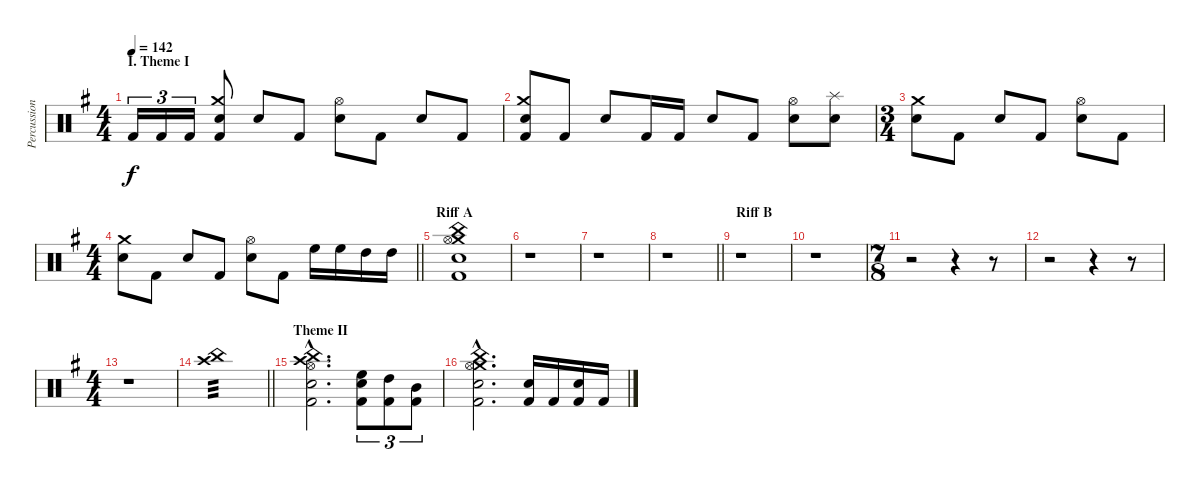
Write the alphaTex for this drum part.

\track ("Percussion" "Percussion") {instrument percussion}
\staff {score}
\articulation defaults
\ts (4 4)
\section ("" "I. Theme I")
\tempo 142
\clef neutral
\ks eminor "Kick (hit) 2".16{tu (3 2) dy f} "Kick (hit) 2".16{tu (3 2)} "Kick (hit) 2".16{tu (3 2)}
("Crash medium (hit)" "Snare (hit) 2" "Kick (hit) 2").8 "Snare (hit) 2".8 "Kick (hit) 2".8 ("Hi-Hat (open)" "Snare (hit) 2").8 "Kick (hit) 2".8 "Snare (hit) 2".8 "Kick (hit) 2".8 |
("Crash medium (hit)" "Snare (hit) 2" "Kick (hit) 2").8 "Kick (hit) 2".8 "Snare (hit) 2".8 "Kick (hit) 2".16 "Kick (hit) 2".16 "Snare (hit) 2".8 "Kick (hit) 2".8 ("Hi-Hat (open)" "Snare (hit) 2").8 ("Splash (hit)" "Snare (hit) 2").8 |
\ts (3 4)
("Crash medium (hit)" "Snare (hit) 2").8 "Kick (hit) 2".8 "Snare (hit) 2".8 "Kick (hit) 2".8 ("Hi-Hat (open)" "Snare (hit) 2").8 "Kick (hit) 2".8 |
\ts (4 4)
\barLineRight lightlight
("Crash medium (hit)" "Snare (hit) 2").8 "Kick (hit) 2".8 "Snare (hit) 2".8 "Kick (hit) 2".8 ("Hi-Hat (open)" "Snare (hit) 2").8 "Kick (hit) 2".8 "High Floor Tom (hit)".16 "High Floor Tom (hit)".16 "High Tom (hit)".16 "High Tom (hit)".16 |
\section ("" "Riff A")
("Crash medium (hit)" "China (hit)" "Hi-Hat (open)" "Snare (hit) 2" "Kick (hit) 2").1 |
r.1 |
r.1 |
\barLineRight lightlight
r.1 |
\section ("" "Riff B")
r.1 |
r.1 |
\ts (7 8)
r.2 r.4 r.8 |
r.2 r.4 r.8 |
\ts (4 4)
r.1{volume 0} |
\barLineRight lightlight
("Crash high (hit)" "China (hit)").1{tp 3 volume 15} |
\section ("" "Theme II")
("Crash high (hit)"{hac} "China (hit)"{hac} "Hi-Hat (open)"{hac} "Snare (hit) 2"{hac} "Kick (hit) 2"{hac}).2{d} ("High Floor Tom (hit)" "Snare (hit) 2" "Kick (hit) 2").8{tu (3 2)} ("High Tom (hit)" "Kick (hit) 2").8{tu (3 2)} ("Mid Tom (hit)" "Kick (hit) 2").8{tu (3 2)} |
("Crash medium (hit)"{hac} "China (hit)"{hac} "Hi-Hat (open)"{hac} "Snare (hit) 2"{hac} "Kick (hit) 2"{hac}).2{d} ("Snare (hit) 2" "Kick (hit) 2").16 "Kick (hit) 2".16 ("Snare (hit) 2" "Kick (hit) 2").16 "Kick (hit) 2".16
